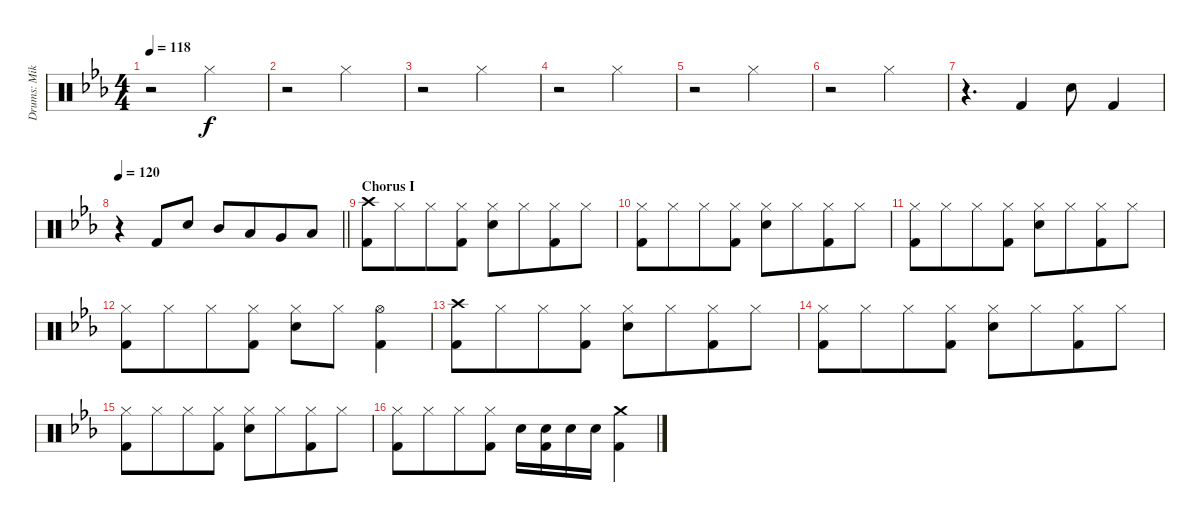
\track ("Drums: Mike" "Drums: Mik") {instrument percussion}
\staff {score}
\articulation defaults
\ts (4 4)
\tempo 118
\clef neutral
\ks eb
r.2{dy f} "Hi-Hat (closed)".2 |
r.2 "Hi-Hat (closed)".2 |
r.2 "Hi-Hat (closed)".2 |
r.2 "Hi-Hat (closed)".2 |
r.2 "Hi-Hat (closed)".2 |
r.2 "Hi-Hat (closed)".2 |
r.4{d} "Kick (hit) 2".4 "Electric Snare (hit)".8 "Kick (hit) 2".4 |
\tempo 120
\barLineRight lightlight
r.4 "Kick (hit) 2".8 "Electric Snare (hit)".8 "Mid Tom (hit)".8 "Low Tom (hit)".8{beam merge} "Very Low Tom (hit)".8 "Low Floor Tom (hit)".8 |
\section ("" "Chorus I")
("Crash high (hit)" "Kick (hit) 2").8 "Hi-Hat (closed)".8{beam merge} "Hi-Hat (closed)".8 ("Hi-Hat (closed)" "Kick (hit) 2").8 ("Hi-Hat (closed)" "Electric Snare (hit)").8 "Hi-Hat (closed)".8{beam merge} ("Hi-Hat (closed)" "Kick (hit) 2").8 "Hi-Hat (closed)".8 |
("Hi-Hat (closed)" "Kick (hit) 2").8 "Hi-Hat (closed)".8{beam merge} "Hi-Hat (closed)".8 ("Hi-Hat (closed)" "Kick (hit) 2").8 ("Hi-Hat (closed)" "Electric Snare (hit)").8 "Hi-Hat (closed)".8{beam merge} ("Hi-Hat (closed)" "Kick (hit) 2").8 "Hi-Hat (closed)".8 |
("Hi-Hat (closed)" "Kick (hit) 2").8 "Hi-Hat (closed)".8{beam merge} "Hi-Hat (closed)".8 ("Hi-Hat (closed)" "Kick (hit) 2").8 ("Hi-Hat (closed)" "Electric Snare (hit)").8 "Hi-Hat (closed)".8{beam merge} ("Hi-Hat (closed)" "Kick (hit) 2").8 "Hi-Hat (closed)".8 |
("Hi-Hat (closed)" "Kick (hit) 2").8 "Hi-Hat (closed)".8{beam merge} "Hi-Hat (closed)".8 ("Hi-Hat (closed)" "Kick (hit) 2").8 ("Hi-Hat (closed)" "Electric Snare (hit)").8 "Hi-Hat (closed)".8{beam merge} ("Hi-Hat (open)" "Kick (hit) 2").4 |
("Crash high (hit)" "Kick (hit) 2").8 "Hi-Hat (closed)".8{beam merge} "Hi-Hat (closed)".8 ("Hi-Hat (closed)" "Kick (hit) 2").8 ("Hi-Hat (closed)" "Electric Snare (hit)").8 "Hi-Hat (closed)".8{beam merge} ("Hi-Hat (closed)" "Kick (hit) 2").8 "Hi-Hat (closed)".8 |
("Hi-Hat (closed)" "Kick (hit) 2").8 "Hi-Hat (closed)".8{beam merge} "Hi-Hat (closed)".8 ("Hi-Hat (closed)" "Kick (hit) 2").8 ("Hi-Hat (closed)" "Electric Snare (hit)").8 "Hi-Hat (closed)".8{beam merge} ("Hi-Hat (closed)" "Kick (hit) 2").8 "Hi-Hat (closed)".8 |
("Hi-Hat (closed)" "Kick (hit) 2").8 "Hi-Hat (closed)".8{beam merge} "Hi-Hat (closed)".8 ("Hi-Hat (closed)" "Kick (hit) 2").8 ("Hi-Hat (closed)" "Electric Snare (hit)").8 "Hi-Hat (closed)".8{beam merge} ("Hi-Hat (closed)" "Kick (hit) 2").8 "Hi-Hat (closed)".8 |
("Hi-Hat (closed)" "Kick (hit) 2").8 "Hi-Hat (closed)".8{beam merge} "Hi-Hat (closed)".8 ("Hi-Hat (closed)" "Kick (hit) 2").8 "Electric Snare (hit)".16 ("Electric Snare (hit)" "Kick (hit) 2").16 "Electric Snare (hit)".16 "Electric Snare (hit)".16{beam merge} ("Crash medium (hit)" "Kick (hit) 2").4
